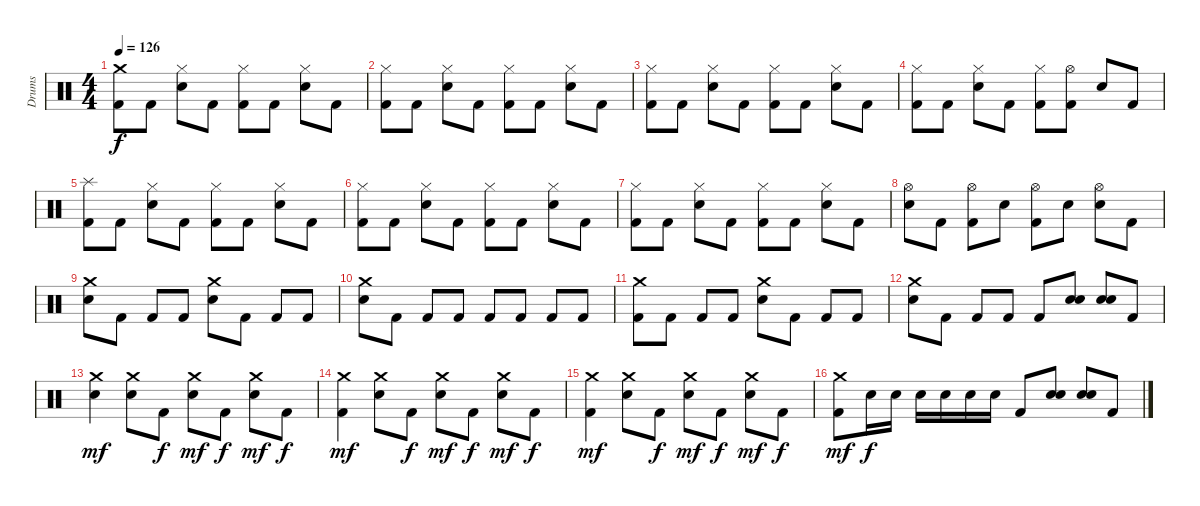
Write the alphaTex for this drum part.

\track ("Drums" "Drums") {instrument percussion}
\staff {score}
\articulation defaults
\ts (4 4)
\tempo 126
\clef neutral
\ks c
("Crash medium (hit)" "Kick (hit) 2").8{dy f} "Kick (hit) 2".8 ("Hi-Hat (closed)" "Electric Snare (hit)").8 "Kick (hit) 2".8 ("Hi-Hat (closed)" "Kick (hit) 2").8 "Kick (hit) 2".8 ("Hi-Hat (closed)" "Electric Snare (hit)").8 "Kick (hit) 2".8 |
("Hi-Hat (closed)" "Kick (hit) 2").8 "Kick (hit) 2".8 ("Hi-Hat (closed)" "Electric Snare (hit)").8 "Kick (hit) 2".8 ("Hi-Hat (closed)" "Kick (hit) 2").8 "Kick (hit) 2".8 ("Hi-Hat (closed)" "Electric Snare (hit)").8 "Kick (hit) 2".8 |
("Hi-Hat (closed)" "Kick (hit) 2").8 "Kick (hit) 2".8 ("Hi-Hat (closed)" "Electric Snare (hit)").8 "Kick (hit) 2".8 ("Hi-Hat (closed)" "Kick (hit) 2").8 "Kick (hit) 2".8 ("Hi-Hat (closed)" "Electric Snare (hit)").8 "Kick (hit) 2".8 |
("Hi-Hat (closed)" "Kick (hit) 2").8 "Kick (hit) 2".8 ("Hi-Hat (closed)" "Electric Snare (hit)").8 "Kick (hit) 2".8 ("Hi-Hat (closed)" "Kick (hit) 2").8 ("Hi-Hat (open)" "Kick (hit) 2").8 "Electric Snare (hit)".8 "Kick (hit) 2".8 |
("Splash (hit)" "Kick (hit) 2").8 "Kick (hit) 2".8 ("Hi-Hat (closed)" "Electric Snare (hit)").8 "Kick (hit) 2".8 ("Hi-Hat (closed)" "Kick (hit) 2").8 "Kick (hit) 2".8 ("Hi-Hat (closed)" "Electric Snare (hit)").8 "Kick (hit) 2".8 |
("Hi-Hat (closed)" "Kick (hit) 2").8 "Kick (hit) 2".8 ("Hi-Hat (closed)" "Electric Snare (hit)").8 "Kick (hit) 2".8 ("Hi-Hat (closed)" "Kick (hit) 2").8 "Kick (hit) 2".8 ("Hi-Hat (closed)" "Electric Snare (hit)").8 "Kick (hit) 2".8 |
("Hi-Hat (closed)" "Kick (hit) 2").8 "Kick (hit) 2".8 ("Hi-Hat (closed)" "Electric Snare (hit)").8 "Kick (hit) 2".8 ("Hi-Hat (closed)" "Kick (hit) 2").8 "Kick (hit) 2".8 ("Hi-Hat (closed)" "Electric Snare (hit)").8 "Kick (hit) 2".8 |
("Hi-Hat (open)" "Electric Snare (hit)").8 "Kick (hit) 2".8 ("Hi-Hat (open)" "Kick (hit) 2").8 "Electric Snare (hit)".8 ("Hi-Hat (open)" "Kick (hit) 2").8 "Electric Snare (hit)".8 ("Hi-Hat (open)" "Electric Snare (hit)").8 "Kick (hit) 2".8 |
("Crash medium (hit)" "Electric Snare (hit)").8 "Kick (hit) 2".8 "Kick (hit) 2".8 "Kick (hit) 2".8 ("Crash medium (hit)" "Electric Snare (hit)").8 "Kick (hit) 2".8 "Kick (hit) 2".8 "Kick (hit) 2".8 |
("Crash medium (hit)" "Electric Snare (hit)").8 "Kick (hit) 2".8 "Kick (hit) 2".8{beam Up} "Kick (hit) 2".8{beam Up} "Kick (hit) 2".8 "Kick (hit) 2".8 "Kick (hit) 2".8 "Kick (hit) 2".8 |
("Crash medium (hit)" "Kick (hit) 2").8 "Kick (hit) 2".8 "Kick (hit) 2".8 "Kick (hit) 2".8 ("Crash medium (hit)" "Electric Snare (hit)").8 "Kick (hit) 2".8 "Kick (hit) 2".8 "Kick (hit) 2".8 |
("Crash medium (hit)" "Electric Snare (hit)").8 "Kick (hit) 2".8 "Kick (hit) 2".8 "Kick (hit) 2".8 "Kick (hit) 2".8 ("Electric Snare (hit)" "Electric Snare (hit)").8 ("Electric Snare (hit)" "Electric Snare (hit)").8 "Kick (hit) 2".8 |
("Crash medium (hit)" "Electric Snare (hit)").4{dy mf} ("Crash medium (hit)" "Electric Snare (hit)").8 "Kick (hit) 2".8{dy f} ("Crash medium (hit)" "Electric Snare (hit)").8{dy mf} "Kick (hit) 2".8{dy f} ("Crash medium (hit)" "Electric Snare (hit)").8{dy mf} "Kick (hit) 2".8{dy f} |
("Crash medium (hit)" "Kick (hit) 2").4{dy mf} ("Crash medium (hit)" "Electric Snare (hit)").8 "Kick (hit) 2".8{dy f} ("Crash medium (hit)" "Electric Snare (hit)").8{dy mf} "Kick (hit) 2".8{dy f} ("Crash medium (hit)" "Electric Snare (hit)").8{dy mf} "Kick (hit) 2".8{dy f} |
("Crash medium (hit)" "Kick (hit) 2").4{dy mf} ("Crash medium (hit)" "Electric Snare (hit)").8 "Kick (hit) 2".8{dy f} ("Crash medium (hit)" "Electric Snare (hit)").8{dy mf} "Kick (hit) 2".8{dy f} ("Crash medium (hit)" "Electric Snare (hit)").8{dy mf} "Kick (hit) 2".8{dy f} |
("Crash medium (hit)" "Kick (hit) 2").8{dy mf} "Electric Snare (hit)".16{dy f} "Electric Snare (hit)".16 "Electric Snare (hit)".16 "Electric Snare (hit)".16 "Electric Snare (hit)".16 "Electric Snare (hit)".16 "Kick (hit) 2".8 ("Electric Snare (hit)" "Electric Snare (hit)").8 ("Electric Snare (hit)" "Electric Snare (hit)").8 "Kick (hit) 2".8
